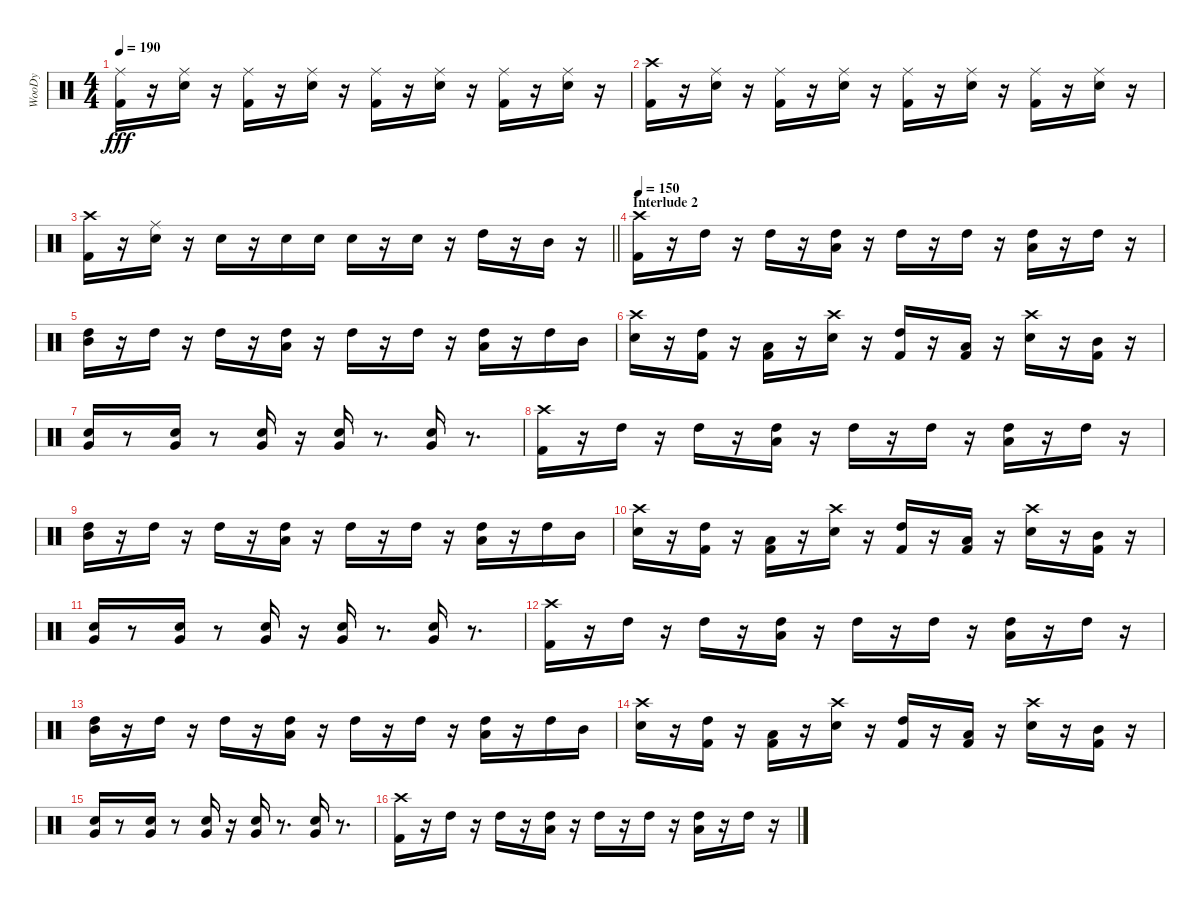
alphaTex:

\track ("WooDy" "WooDy") {instrument percussion}
\staff {score}
\articulation defaults
\ts (4 4)
\tempo 190
\clef neutral
\ks c
("Kick (hit) 2" "Ride (middle)").16{dy fff} r.16 ("Snare (hit) 2" "Ride (middle)").16 r.16 ("Kick (hit) 2" "Ride (middle)").16 r.16 ("Snare (hit) 2" "Ride (middle)").16 r.16 ("Kick (hit) 2" "Ride (middle)").16 r.16 ("Snare (hit) 2" "Ride (middle)").16 r.16 ("Kick (hit) 2" "Ride (middle)").16 r.16 ("Snare (hit) 2" "Ride (middle)").16 r.16 |
("Kick (hit) 2" "Crash high (hit)").16 r.16 ("Snare (hit) 2" "Ride (middle)").16 r.16 ("Kick (hit) 2" "Ride (middle)").16 r.16 ("Snare (hit) 2" "Ride (middle)").16 r.16 ("Kick (hit) 2" "Ride (middle)").16 r.16 ("Snare (hit) 2" "Ride (middle)").16 r.16 ("Kick (hit) 2" "Ride (middle)").16 r.16 ("Snare (hit) 2" "Ride (middle)").16 r.16 |
\barLineRight lightlight
("Kick (hit) 2" "Crash high (hit)").16 r.16 ("Snare (hit) 2" "Ride (middle)").16 r.16 "Snare (hit) 2".16 r.16 "Snare (hit) 2".16 "Snare (hit) 2".16 "Snare (hit) 2".16 r.16 "Snare (hit) 2".16 r.16 "High Tom (hit)".16 r.16 "Mid Tom (hit)".16 r.16 |
\section ("" "Interlude 2")
\tempo 150
("Kick (hit) 2" "Crash high (hit)").16 r.16 "High Tom (hit)".16 r.16 "High Tom (hit)".16 r.16 ("Low Tom (hit)" "High Tom (hit)").16 r.16 "High Tom (hit)".16 r.16 "High Tom (hit)".16 r.16 ("Low Tom (hit)" "High Tom (hit)").16 r.16 "High Tom (hit)".16 r.16 |
("Mid Tom (hit)" "High Tom (hit)").16 r.16 "High Tom (hit)".16 r.16 "High Tom (hit)".16 r.16 ("Low Tom (hit)" "High Tom (hit)").16 r.16 "High Tom (hit)".16 r.16 "High Tom (hit)".16 r.16 ("Low Tom (hit)" "High Tom (hit)").16 r.16 "High Tom (hit)".16 "Mid Tom (hit)".16 |
("Snare (hit) 2" "Crash high (hit)").16 r.16 ("Kick (hit) 2" "High Tom (hit)").16 r.16 ("Kick (hit) 2" "Low Tom (hit)").16 r.16 ("Snare (hit) 2" "Crash high (hit)").16 r.16 ("Kick (hit) 2" "High Tom (hit)").16 r.16 ("Kick (hit) 2" "Low Tom (hit)").16 r.16 ("Snare (hit) 2" "Crash high (hit)").16 r.16 ("Kick (hit) 2" "Mid Tom (hit)").16 r.16 |
("Snare (hit) 2" "Very Low Tom (hit)").16 r.8 ("Snare (hit) 2" "Very Low Tom (hit)").16 r.8 ("Snare (hit) 2" "Very Low Tom (hit)").16 r.16 ("Snare (hit) 2" "Very Low Tom (hit)").16 r.8{d} ("Snare (hit) 2" "Very Low Tom (hit)").16 r.8{d} |
("Kick (hit) 2" "Crash high (hit)").16 r.16 "High Tom (hit)".16 r.16 "High Tom (hit)".16 r.16 ("Low Tom (hit)" "High Tom (hit)").16 r.16 "High Tom (hit)".16 r.16 "High Tom (hit)".16 r.16 ("Low Tom (hit)" "High Tom (hit)").16 r.16 "High Tom (hit)".16 r.16 |
("Mid Tom (hit)" "High Tom (hit)").16 r.16 "High Tom (hit)".16 r.16 "High Tom (hit)".16 r.16 ("Low Tom (hit)" "High Tom (hit)").16 r.16 "High Tom (hit)".16 r.16 "High Tom (hit)".16 r.16 ("Low Tom (hit)" "High Tom (hit)").16 r.16 "High Tom (hit)".16 "Mid Tom (hit)".16 |
("Snare (hit) 2" "Crash high (hit)").16 r.16 ("Kick (hit) 2" "High Tom (hit)").16 r.16 ("Kick (hit) 2" "Low Tom (hit)").16 r.16 ("Snare (hit) 2" "Crash high (hit)").16 r.16 ("Kick (hit) 2" "High Tom (hit)").16 r.16 ("Kick (hit) 2" "Low Tom (hit)").16 r.16 ("Snare (hit) 2" "Crash high (hit)").16 r.16 ("Kick (hit) 2" "Mid Tom (hit)").16 r.16 |
("Snare (hit) 2" "Very Low Tom (hit)").16 r.8 ("Snare (hit) 2" "Very Low Tom (hit)").16 r.8 ("Snare (hit) 2" "Very Low Tom (hit)").16 r.16 ("Snare (hit) 2" "Very Low Tom (hit)").16 r.8{d} ("Snare (hit) 2" "Very Low Tom (hit)").16 r.8{d} |
("Kick (hit) 2" "Crash high (hit)").16 r.16 "High Tom (hit)".16 r.16 "High Tom (hit)".16 r.16 ("Low Tom (hit)" "High Tom (hit)").16 r.16 "High Tom (hit)".16 r.16 "High Tom (hit)".16 r.16 ("Low Tom (hit)" "High Tom (hit)").16 r.16 "High Tom (hit)".16 r.16 |
("Mid Tom (hit)" "High Tom (hit)").16 r.16 "High Tom (hit)".16 r.16 "High Tom (hit)".16 r.16 ("Low Tom (hit)" "High Tom (hit)").16 r.16 "High Tom (hit)".16 r.16 "High Tom (hit)".16 r.16 ("Low Tom (hit)" "High Tom (hit)").16 r.16 "High Tom (hit)".16 "Mid Tom (hit)".16 |
("Snare (hit) 2" "Crash high (hit)").16 r.16 ("Kick (hit) 2" "High Tom (hit)").16 r.16 ("Kick (hit) 2" "Low Tom (hit)").16 r.16 ("Snare (hit) 2" "Crash high (hit)").16 r.16 ("Kick (hit) 2" "High Tom (hit)").16 r.16 ("Kick (hit) 2" "Low Tom (hit)").16 r.16 ("Snare (hit) 2" "Crash high (hit)").16 r.16 ("Kick (hit) 2" "Mid Tom (hit)").16 r.16 |
("Snare (hit) 2" "Very Low Tom (hit)").16 r.8 ("Snare (hit) 2" "Very Low Tom (hit)").16 r.8 ("Snare (hit) 2" "Very Low Tom (hit)").16 r.16 ("Snare (hit) 2" "Very Low Tom (hit)").16 r.8{d} ("Snare (hit) 2" "Very Low Tom (hit)").16 r.8{d} |
("Kick (hit) 2" "Crash high (hit)").16 r.16 "High Tom (hit)".16 r.16 "High Tom (hit)".16 r.16 ("Low Tom (hit)" "High Tom (hit)").16 r.16 "High Tom (hit)".16 r.16 "High Tom (hit)".16 r.16 ("Low Tom (hit)" "High Tom (hit)").16 r.16 "High Tom (hit)".16 r.16
